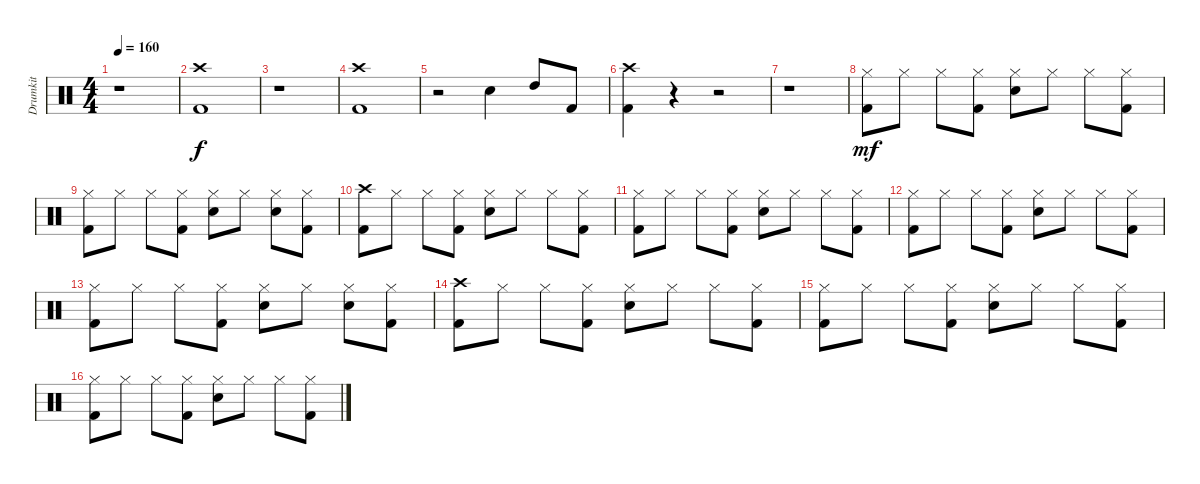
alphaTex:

\track ("Drumkit" "Drumkit") {instrument percussion}
\staff {score}
\articulation defaults
\ts (4 4)
\tempo 160
\clef neutral
\ks c
r.1{dy f} |
("Crash high (hit)" "Kick (hit) 2").1 |
r.1 |
("Crash high (hit)" "Kick (hit) 2").1 |
r.2 "Snare (hit) 2".4 "High Tom (hit)".8 "Kick (hit) 2".8 |
("Crash high (hit)" "Kick (hit) 2").4 r.4 r.2 |
r.1 |
("Hi-Hat (closed)" "Kick (hit) 2").8{dy mf} "Hi-Hat (closed)".8 "Hi-Hat (closed)".8 ("Hi-Hat (closed)" "Kick (hit) 2").8 ("Hi-Hat (closed)" "Snare (hit) 2").8 "Hi-Hat (closed)".8 "Hi-Hat (closed)".8 ("Hi-Hat (closed)" "Kick (hit) 2").8 |
("Hi-Hat (closed)" "Kick (hit) 2").8 "Hi-Hat (closed)".8 "Hi-Hat (closed)".8 ("Hi-Hat (closed)" "Kick (hit) 2").8 ("Hi-Hat (closed)" "Snare (hit) 2").8 "Hi-Hat (closed)".8 ("Hi-Hat (closed)" "Snare (hit) 2").8 ("Hi-Hat (closed)" "Kick (hit) 2").8 |
("Crash high (hit)" "Kick (hit) 2").8 "Hi-Hat (closed)".8 "Hi-Hat (closed)".8 ("Hi-Hat (closed)" "Kick (hit) 2").8 ("Hi-Hat (closed)" "Snare (hit) 2").8 "Hi-Hat (closed)".8 "Hi-Hat (closed)".8 ("Hi-Hat (closed)" "Kick (hit) 2").8 |
("Hi-Hat (closed)" "Kick (hit) 2").8 "Hi-Hat (closed)".8 "Hi-Hat (closed)".8 ("Hi-Hat (closed)" "Kick (hit) 2").8 ("Hi-Hat (closed)" "Snare (hit) 2").8 "Hi-Hat (closed)".8 "Hi-Hat (closed)".8 ("Hi-Hat (closed)" "Kick (hit) 2").8 |
("Hi-Hat (closed)" "Kick (hit) 2").8 "Hi-Hat (closed)".8 "Hi-Hat (closed)".8 ("Hi-Hat (closed)" "Kick (hit) 2").8 ("Hi-Hat (closed)" "Snare (hit) 2").8 "Hi-Hat (closed)".8 "Hi-Hat (closed)".8 ("Hi-Hat (closed)" "Kick (hit) 2").8 |
("Hi-Hat (closed)" "Kick (hit) 2").8 "Hi-Hat (closed)".8 "Hi-Hat (closed)".8 ("Hi-Hat (closed)" "Kick (hit) 2").8 ("Hi-Hat (closed)" "Snare (hit) 2").8 "Hi-Hat (closed)".8 ("Hi-Hat (closed)" "Snare (hit) 2").8 ("Hi-Hat (closed)" "Kick (hit) 2").8 |
("Crash high (hit)" "Kick (hit) 2").8 "Hi-Hat (closed)".8 "Hi-Hat (closed)".8 ("Hi-Hat (closed)" "Kick (hit) 2").8 ("Hi-Hat (closed)" "Snare (hit) 2").8 "Hi-Hat (closed)".8 "Hi-Hat (closed)".8 ("Hi-Hat (closed)" "Kick (hit) 2").8 |
("Hi-Hat (closed)" "Kick (hit) 2").8 "Hi-Hat (closed)".8 "Hi-Hat (closed)".8 ("Hi-Hat (closed)" "Kick (hit) 2").8 ("Hi-Hat (closed)" "Snare (hit) 2").8 "Hi-Hat (closed)".8 "Hi-Hat (closed)".8 ("Hi-Hat (closed)" "Kick (hit) 2").8 |
("Hi-Hat (closed)" "Kick (hit) 2").8 "Hi-Hat (closed)".8 "Hi-Hat (closed)".8 ("Hi-Hat (closed)" "Kick (hit) 2").8 ("Hi-Hat (closed)" "Snare (hit) 2").8 "Hi-Hat (closed)".8 "Hi-Hat (closed)".8 ("Hi-Hat (closed)" "Kick (hit) 2").8
